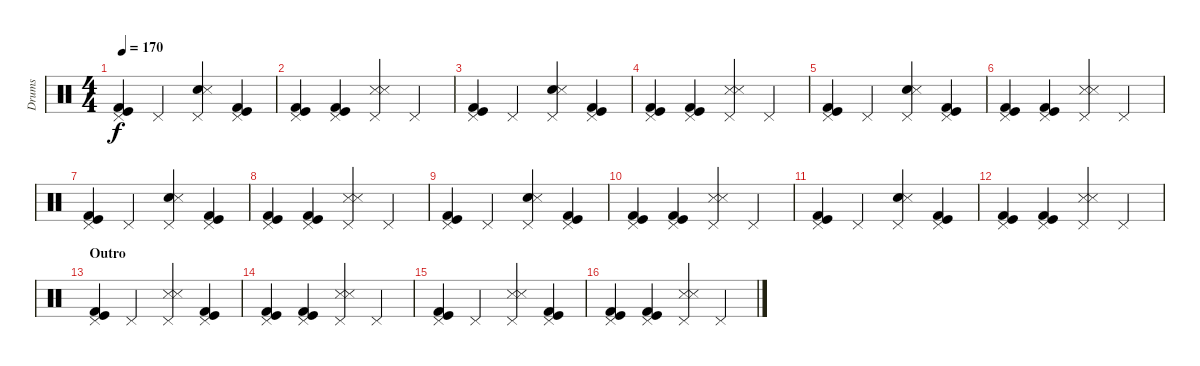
\track ("Drums" "Drums") {instrument percussion}
\staff {score}
\articulation defaults
\ts (4 4)
\tempo 170
\clef neutral
\ks c
("Pedal Hi-Hat (hit)" "Kick (hit)" "Kick (hit) 2").4{dy f} "Pedal Hi-Hat (hit)".4 ("Pedal Hi-Hat (hit)" "Snare (hit) 2" "Snare (side stick) 3").4 ("Pedal Hi-Hat (hit)" "Kick (hit)" "Kick (hit) 2").4 |
("Pedal Hi-Hat (hit)" "Kick (hit)" "Kick (hit) 2").4 ("Pedal Hi-Hat (hit)" "Kick (hit)" "Kick (hit) 2").4 ("Pedal Hi-Hat (hit)" "Snare (side stick) 3" "Snare (side stick) 3").4 "Pedal Hi-Hat (hit)".4 |
("Pedal Hi-Hat (hit)" "Kick (hit)" "Kick (hit) 2").4 "Pedal Hi-Hat (hit)".4 ("Pedal Hi-Hat (hit)" "Snare (hit) 2" "Snare (side stick) 3").4 ("Pedal Hi-Hat (hit)" "Kick (hit)" "Kick (hit) 2").4 |
("Pedal Hi-Hat (hit)" "Kick (hit)" "Kick (hit) 2").4 ("Pedal Hi-Hat (hit)" "Kick (hit)" "Kick (hit) 2").4 ("Pedal Hi-Hat (hit)" "Snare (side stick) 3" "Snare (side stick) 3").4 "Pedal Hi-Hat (hit)".4 |
("Pedal Hi-Hat (hit)" "Kick (hit)" "Kick (hit) 2").4 "Pedal Hi-Hat (hit)".4 ("Pedal Hi-Hat (hit)" "Snare (hit) 2" "Snare (side stick) 3").4 ("Pedal Hi-Hat (hit)" "Kick (hit)" "Kick (hit) 2").4 |
("Pedal Hi-Hat (hit)" "Kick (hit)" "Kick (hit) 2").4 ("Pedal Hi-Hat (hit)" "Kick (hit)" "Kick (hit) 2").4 ("Pedal Hi-Hat (hit)" "Snare (side stick) 3" "Snare (side stick) 3").4 "Pedal Hi-Hat (hit)".4 |
("Pedal Hi-Hat (hit)" "Kick (hit)" "Kick (hit) 2").4 "Pedal Hi-Hat (hit)".4 ("Pedal Hi-Hat (hit)" "Snare (hit) 2" "Snare (side stick) 3").4 ("Pedal Hi-Hat (hit)" "Kick (hit)" "Kick (hit) 2").4 |
("Pedal Hi-Hat (hit)" "Kick (hit)" "Kick (hit) 2").4 ("Pedal Hi-Hat (hit)" "Kick (hit)" "Kick (hit) 2").4 ("Pedal Hi-Hat (hit)" "Snare (side stick) 3" "Snare (side stick) 3").4 "Pedal Hi-Hat (hit)".4 |
("Pedal Hi-Hat (hit)" "Kick (hit)" "Kick (hit) 2").4 "Pedal Hi-Hat (hit)".4 ("Pedal Hi-Hat (hit)" "Snare (hit) 2" "Snare (side stick) 3").4 ("Pedal Hi-Hat (hit)" "Kick (hit)" "Kick (hit) 2").4 |
("Pedal Hi-Hat (hit)" "Kick (hit)" "Kick (hit) 2").4 ("Pedal Hi-Hat (hit)" "Kick (hit)" "Kick (hit) 2").4 ("Pedal Hi-Hat (hit)" "Snare (side stick) 3" "Snare (side stick) 3").4 "Pedal Hi-Hat (hit)".4 |
("Pedal Hi-Hat (hit)" "Kick (hit)" "Kick (hit) 2").4 "Pedal Hi-Hat (hit)".4 ("Pedal Hi-Hat (hit)" "Snare (hit) 2" "Snare (side stick) 3").4 ("Pedal Hi-Hat (hit)" "Kick (hit)" "Kick (hit) 2").4 |
("Pedal Hi-Hat (hit)" "Kick (hit)" "Kick (hit) 2").4 ("Pedal Hi-Hat (hit)" "Kick (hit)" "Kick (hit) 2").4 ("Pedal Hi-Hat (hit)" "Snare (side stick) 3" "Snare (side stick) 3").4 "Pedal Hi-Hat (hit)".4 |
\section ("" "Outro")
("Pedal Hi-Hat (hit)" "Kick (hit)" "Kick (hit) 2").4 "Pedal Hi-Hat (hit)".4 ("Pedal Hi-Hat (hit)" "Snare (side stick) 3" "Snare (side stick) 3").4 ("Pedal Hi-Hat (hit)" "Kick (hit)" "Kick (hit) 2").4 |
("Pedal Hi-Hat (hit)" "Kick (hit)" "Kick (hit) 2").4 ("Pedal Hi-Hat (hit)" "Kick (hit)" "Kick (hit) 2").4 ("Pedal Hi-Hat (hit)" "Snare (side stick) 3" "Snare (side stick) 3").4 "Pedal Hi-Hat (hit)".4 |
("Pedal Hi-Hat (hit)" "Kick (hit)" "Kick (hit) 2").4 "Pedal Hi-Hat (hit)".4 ("Pedal Hi-Hat (hit)" "Snare (side stick) 3" "Snare (side stick) 3").4 ("Pedal Hi-Hat (hit)" "Kick (hit)" "Kick (hit) 2").4 |
("Pedal Hi-Hat (hit)" "Kick (hit)" "Kick (hit) 2").4 ("Pedal Hi-Hat (hit)" "Kick (hit)" "Kick (hit) 2").4 ("Pedal Hi-Hat (hit)" "Snare (side stick) 3" "Snare (side stick) 3").4 "Pedal Hi-Hat (hit)".4
